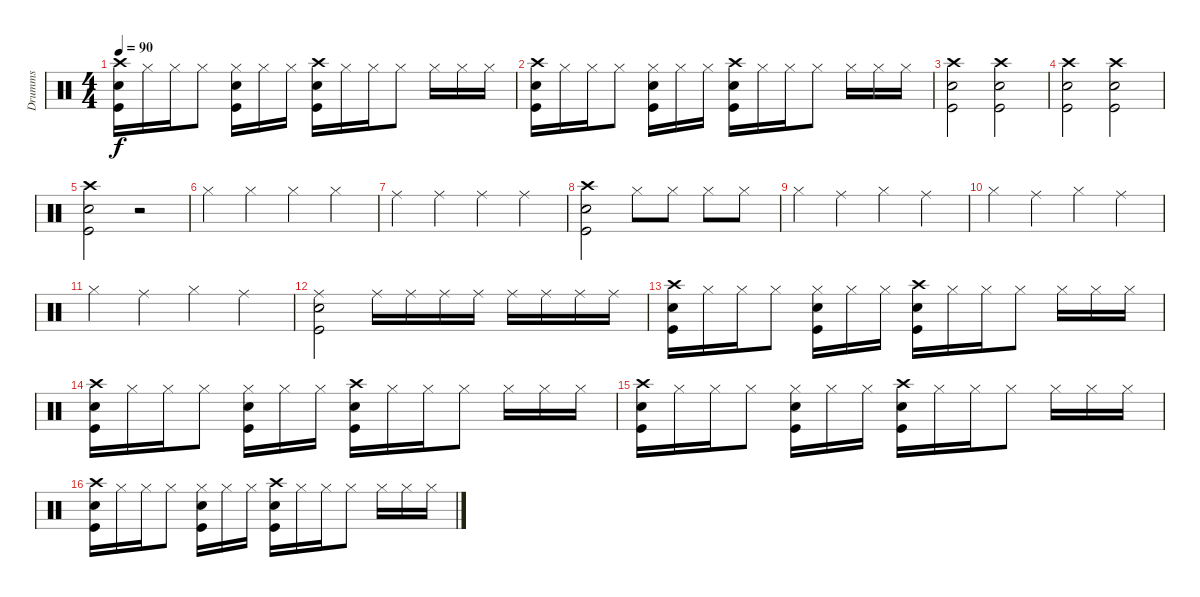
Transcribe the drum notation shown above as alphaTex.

\track ("Drumms" "Drumms") {instrument percussion}
\staff {score}
\articulation defaults
\ts (4 4)
\tempo 90
\clef neutral
\ks c
("Crash high (hit)" "Snare (hit) 2" "Kick (hit)").16{dy f} "Hi-Hat (closed)".16 "Hi-Hat (closed)".16 "Hi-Hat (closed)".8 ("Hi-Hat (closed)" "Snare (hit) 2" "Kick (hit)").16 "Hi-Hat (closed)".16 "Hi-Hat (closed)".16 ("Crash high (hit)" "Snare (hit) 2" "Kick (hit)").16 "Hi-Hat (closed)".16 "Hi-Hat (closed)".16 "Hi-Hat (closed)".8 "Hi-Hat (closed)".16 "Hi-Hat (closed)".16 "Hi-Hat (closed)".16 |
("Crash high (hit)" "Snare (hit) 2" "Kick (hit)").16 "Hi-Hat (closed)".16 "Hi-Hat (closed)".16 "Hi-Hat (closed)".8 ("Hi-Hat (closed)" "Snare (hit) 2" "Kick (hit)").16 "Hi-Hat (closed)".16 "Hi-Hat (closed)".16 ("Crash high (hit)" "Snare (hit) 2" "Kick (hit)").16 "Hi-Hat (closed)".16 "Hi-Hat (closed)".16 "Hi-Hat (closed)".8 "Hi-Hat (closed)".16 "Hi-Hat (closed)".16 "Hi-Hat (closed)".16 |
("Crash high (hit)" "Snare (hit) 2" "Kick (hit)").2 ("Crash high (hit)" "Snare (hit) 2" "Kick (hit)").2 |
("Crash high (hit)" "Snare (hit) 2" "Kick (hit)").2 ("Crash high (hit)" "Snare (hit) 2" "Kick (hit)").2 |
("Crash high (hit)" "Snare (hit) 2" "Kick (hit)").2 r.2 |
"Hi-Hat (closed)".4 "Hi-Hat (closed)".4 "Hi-Hat (closed)".4 "Hi-Hat (closed)".4 |
"Ride (middle)".4 "Ride (middle)".4 "Ride (middle)".4 "Ride (middle)".4 |
("Crash high (hit)" "Snare (hit) 2" "Kick (hit)").2 "Hi-Hat (closed)".8 "Hi-Hat (closed)".8 "Hi-Hat (closed)".8 "Hi-Hat (closed)".8 |
"Hi-Hat (closed)".4 "Ride (middle)".4 "Hi-Hat (closed)".4 "Ride (middle)".4 |
"Hi-Hat (closed)".4 "Ride (middle)".4 "Hi-Hat (closed)".4 "Ride (middle)".4 |
"Hi-Hat (closed)".4 "Ride (middle)".4 "Hi-Hat (closed)".4 "Ride (middle)".4 |
("Ride (middle)" "Snare (hit) 2" "Kick (hit)").2 "Ride (middle)".16 "Ride (middle)".16 "Ride (middle)".16 "Ride (middle)".16 "Ride (middle)".16 "Ride (middle)".16 "Ride (middle)".16 "Ride (middle)".16 |
("Crash high (hit)" "Snare (hit) 2" "Kick (hit)").16 "Hi-Hat (closed)".16 "Hi-Hat (closed)".16 "Hi-Hat (closed)".8 ("Hi-Hat (closed)" "Snare (hit) 2" "Kick (hit)").16 "Hi-Hat (closed)".16 "Hi-Hat (closed)".16 ("Crash high (hit)" "Snare (hit) 2" "Kick (hit)").16 "Hi-Hat (closed)".16 "Hi-Hat (closed)".16 "Hi-Hat (closed)".8 "Hi-Hat (closed)".16 "Hi-Hat (closed)".16 "Hi-Hat (closed)".16 |
("Crash high (hit)" "Snare (hit) 2" "Kick (hit)").16 "Hi-Hat (closed)".16 "Hi-Hat (closed)".16 "Hi-Hat (closed)".8 ("Hi-Hat (closed)" "Snare (hit) 2" "Kick (hit)").16 "Hi-Hat (closed)".16 "Hi-Hat (closed)".16 ("Crash high (hit)" "Snare (hit) 2" "Kick (hit)").16 "Hi-Hat (closed)".16 "Hi-Hat (closed)".16 "Hi-Hat (closed)".8 "Hi-Hat (closed)".16 "Hi-Hat (closed)".16 "Hi-Hat (closed)".16 |
("Crash high (hit)" "Snare (hit) 2" "Kick (hit)").16 "Hi-Hat (closed)".16 "Hi-Hat (closed)".16 "Hi-Hat (closed)".8 ("Hi-Hat (closed)" "Snare (hit) 2" "Kick (hit)").16 "Hi-Hat (closed)".16 "Hi-Hat (closed)".16 ("Crash high (hit)" "Snare (hit) 2" "Kick (hit)").16 "Hi-Hat (closed)".16 "Hi-Hat (closed)".16 "Hi-Hat (closed)".8 "Hi-Hat (closed)".16 "Hi-Hat (closed)".16 "Hi-Hat (closed)".16 |
("Crash high (hit)" "Snare (hit) 2" "Kick (hit)").16 "Hi-Hat (closed)".16 "Hi-Hat (closed)".16 "Hi-Hat (closed)".8 ("Hi-Hat (closed)" "Snare (hit) 2" "Kick (hit)").16 "Hi-Hat (closed)".16 "Hi-Hat (closed)".16 ("Crash high (hit)" "Snare (hit) 2" "Kick (hit)").16 "Hi-Hat (closed)".16 "Hi-Hat (closed)".16 "Hi-Hat (closed)".8 "Hi-Hat (closed)".16 "Hi-Hat (closed)".16 "Hi-Hat (closed)".16
